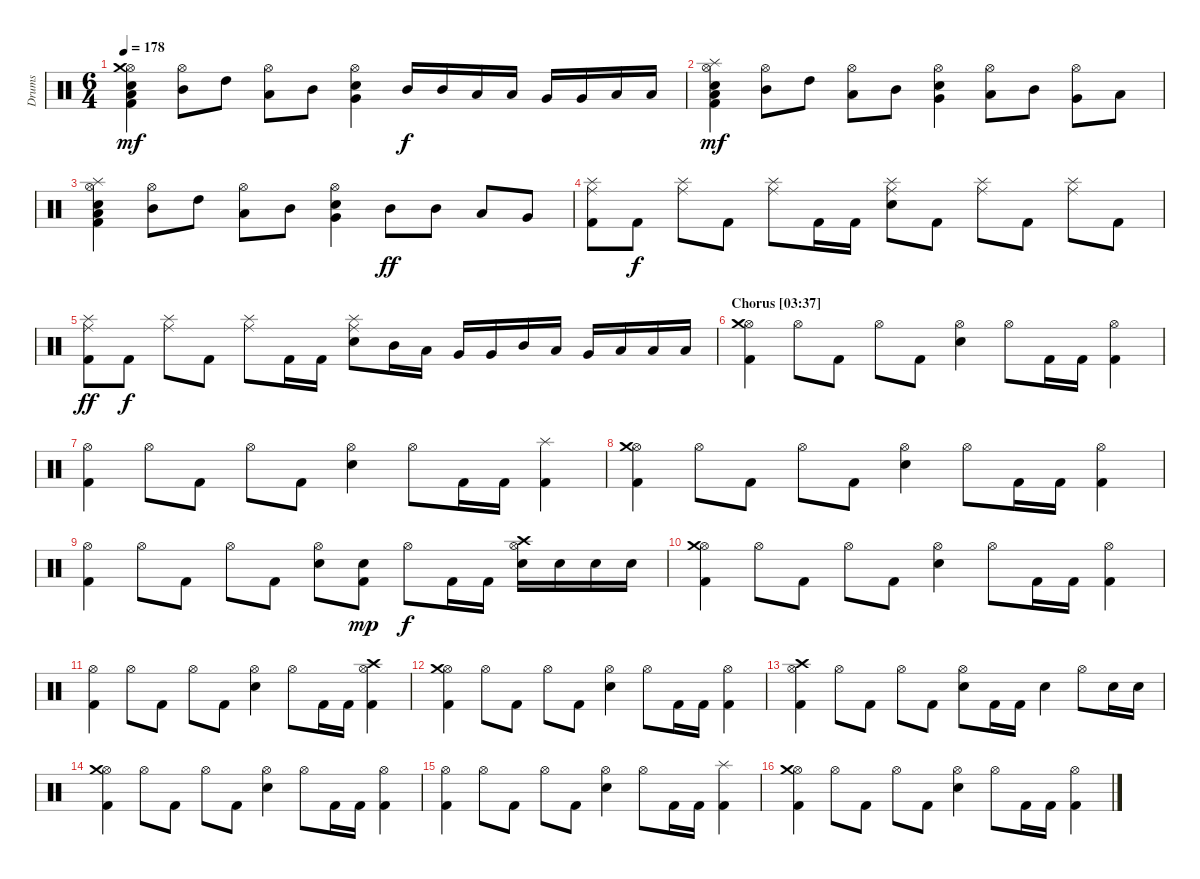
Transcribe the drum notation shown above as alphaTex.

\track ("Drums" "Drums") {instrument percussion}
\staff {score}
\articulation defaults
\ts (6 4)
\tempo 178
\clef neutral
\ks c
("Hi-Hat (open)" "Crash medium (hit)" "Low Floor Tom (hit)" "Electric Snare (hit)" "Kick (hit) 2").4{dy mf} ("Hi-Hat (open)" "Mid Tom (hit)").8 "High Tom (hit)".8 ("Hi-Hat (open)" "Low Tom (hit)").8 "Mid Tom (hit)".8 ("Hi-Hat (open)" "Very Low Tom (hit)" "Electric Snare (hit)").4 "Mid Tom (hit)".16{dy f} "Mid Tom (hit)".16 "Low Tom (hit)".16 "Low Tom (hit)".16 "Very Low Tom (hit)".16 "Very Low Tom (hit)".16 "Low Floor Tom (hit)".16 "Low Floor Tom (hit)".16 |
("Hi-Hat (open)" "Splash (hit)" "Low Tom (hit)" "Electric Snare (hit)" "Kick (hit) 2").4{dy mf} ("Hi-Hat (open)" "Mid Tom (hit)").8 "High Tom (hit)".8 ("Hi-Hat (open)" "Low Tom (hit)").8 "Mid Tom (hit)".8 ("Hi-Hat (open)" "Very Low Tom (hit)" "Electric Snare (hit)").4 ("Hi-Hat (open)" "Low Tom (hit)").8 "Mid Tom (hit)".8 ("Hi-Hat (open)" "Very Low Tom (hit)").8 "Low Tom (hit)".8 |
("Hi-Hat (open)" "Splash (hit)" "Low Tom (hit)" "Electric Snare (hit)" "Kick (hit) 2").4 ("Hi-Hat (open)" "Mid Tom (hit)").8 "High Tom (hit)".8 ("Hi-Hat (open)" "Low Tom (hit)").8 "Mid Tom (hit)".8 ("Hi-Hat (open)" "Very Low Tom (hit)" "Electric Snare (hit)").4 "Mid Tom (hit)".8{dy ff} "Mid Tom (hit)".8 "Low Tom (hit)".8 "Very Low Tom (hit)".8 |
("Ride (middle)" "Splash (hit)" "Kick (hit) 2").8 "Kick (hit) 2".8{dy f} ("Ride (middle)" "Splash (hit)").8 "Kick (hit) 2".8 ("Ride (middle)" "Splash (hit)").8 "Kick (hit) 2".16 "Kick (hit) 2".16 ("Ride (middle)" "Splash (hit)" "Electric Snare (hit)").8 "Kick (hit) 2".8 ("Ride (middle)" "Splash (hit)").8 "Kick (hit) 2".8 ("Ride (middle)" "Splash (hit)").8 "Kick (hit) 2".8 |
("Ride (middle)" "Splash (hit)" "Kick (hit) 2").8{dy ff} "Kick (hit) 2".8{dy f} ("Ride (middle)" "Splash (hit)").8 "Kick (hit) 2".8 ("Ride (middle)" "Splash (hit)").8 "Kick (hit) 2".16 "Kick (hit) 2".16 ("Ride (middle)" "Splash (hit)" "Electric Snare (hit)").8 "Mid Tom (hit)".16 "Low Tom (hit)".16 "Very Low Tom (hit)".16 "Very Low Tom (hit)".16 "Mid Tom (hit)".16 "Low Tom (hit)".16 "Very Low Tom (hit)".16 "Low Tom (hit)".16 "Low Tom (hit)".16 "Low Tom (hit)".16 |
\section ("" "Chorus [03:37]")
("Hi-Hat (open)" "Crash medium (hit)" "Kick (hit) 2").4 "Hi-Hat (open)".8 "Kick (hit) 2".8 "Hi-Hat (open)".8 "Kick (hit) 2".8 ("Hi-Hat (open)" "Electric Snare (hit)").4 "Hi-Hat (open)".8 "Kick (hit) 2".16 "Kick (hit) 2".16 ("Hi-Hat (open)" "Kick (hit) 2").4 |
("Hi-Hat (open)" "Kick (hit) 2").4 "Hi-Hat (open)".8 "Kick (hit) 2".8 "Hi-Hat (open)".8 "Kick (hit) 2".8 ("Hi-Hat (open)" "Electric Snare (hit)").4 "Hi-Hat (open)".8 "Kick (hit) 2".16 "Kick (hit) 2".16 ("Splash (hit)" "Kick (hit) 2").4 |
("Hi-Hat (open)" "Crash medium (hit)" "Kick (hit) 2").4 "Hi-Hat (open)".8 "Kick (hit) 2".8 "Hi-Hat (open)".8 "Kick (hit) 2".8 ("Hi-Hat (open)" "Electric Snare (hit)").4 "Hi-Hat (open)".8 "Kick (hit) 2".16 "Kick (hit) 2".16 ("Hi-Hat (open)" "Kick (hit) 2").4 |
("Hi-Hat (open)" "Kick (hit) 2").4 "Hi-Hat (open)".8 "Kick (hit) 2".8 "Hi-Hat (open)".8 "Kick (hit) 2".8 ("Hi-Hat (open)" "Electric Snare (hit)").8 ("Snare (hit) 2" "Kick (hit) 2").8{dy mp} "Hi-Hat (open)".8{dy f} "Kick (hit) 2".16 "Kick (hit) 2".16 ("Hi-Hat (open)" "Crash high (hit)" "Electric Snare (hit)").16 "Electric Snare (hit)".16 "Electric Snare (hit)".16 "Electric Snare (hit)".16 |
("Hi-Hat (open)" "Crash medium (hit)" "Kick (hit) 2").4 "Hi-Hat (open)".8 "Kick (hit) 2".8 "Hi-Hat (open)".8 "Kick (hit) 2".8 ("Hi-Hat (open)" "Electric Snare (hit)").4 "Hi-Hat (open)".8 "Kick (hit) 2".16 "Kick (hit) 2".16 ("Hi-Hat (open)" "Kick (hit) 2").4 |
("Hi-Hat (open)" "Kick (hit) 2").4 "Hi-Hat (open)".8 "Kick (hit) 2".8 "Hi-Hat (open)".8 "Kick (hit) 2".8 ("Hi-Hat (open)" "Electric Snare (hit)").4 "Hi-Hat (open)".8 "Kick (hit) 2".16 "Kick (hit) 2".16 ("Hi-Hat (open)" "Crash high (hit)" "Kick (hit) 2").4 |
("Hi-Hat (open)" "Crash medium (hit)" "Kick (hit) 2").4 "Hi-Hat (open)".8 "Kick (hit) 2".8 "Hi-Hat (open)".8 "Kick (hit) 2".8 ("Hi-Hat (open)" "Electric Snare (hit)").4 "Hi-Hat (open)".8 "Kick (hit) 2".16 "Kick (hit) 2".16 ("Hi-Hat (open)" "Kick (hit) 2").4 |
("Hi-Hat (open)" "Crash high (hit)" "Kick (hit) 2").4 "Hi-Hat (open)".8 "Kick (hit) 2".8 "Hi-Hat (open)".8 "Kick (hit) 2".8 ("Hi-Hat (open)" "Electric Snare (hit)").8 "Kick (hit) 2".16 "Kick (hit) 2".16 "Electric Snare (hit)".4 "Hi-Hat (open)".8 "Electric Snare (hit)".16 "Electric Snare (hit)".16 |
\section ("" "")
("Hi-Hat (open)" "Crash medium (hit)" "Kick (hit) 2").4 "Hi-Hat (open)".8 "Kick (hit) 2".8 "Hi-Hat (open)".8 "Kick (hit) 2".8 ("Hi-Hat (open)" "Electric Snare (hit)").4 "Hi-Hat (open)".8 "Kick (hit) 2".16 "Kick (hit) 2".16 ("Hi-Hat (open)" "Kick (hit) 2").4 |
("Hi-Hat (open)" "Kick (hit) 2").4 "Hi-Hat (open)".8 "Kick (hit) 2".8 "Hi-Hat (open)".8 "Kick (hit) 2".8 ("Hi-Hat (open)" "Electric Snare (hit)").4 "Hi-Hat (open)".8 "Kick (hit) 2".16 "Kick (hit) 2".16 ("Splash (hit)" "Kick (hit) 2").4 |
("Hi-Hat (open)" "Crash medium (hit)" "Kick (hit) 2").4 "Hi-Hat (open)".8 "Kick (hit) 2".8 "Hi-Hat (open)".8 "Kick (hit) 2".8 ("Hi-Hat (open)" "Electric Snare (hit)").4 "Hi-Hat (open)".8 "Kick (hit) 2".16 "Kick (hit) 2".16 ("Hi-Hat (open)" "Kick (hit) 2").4
